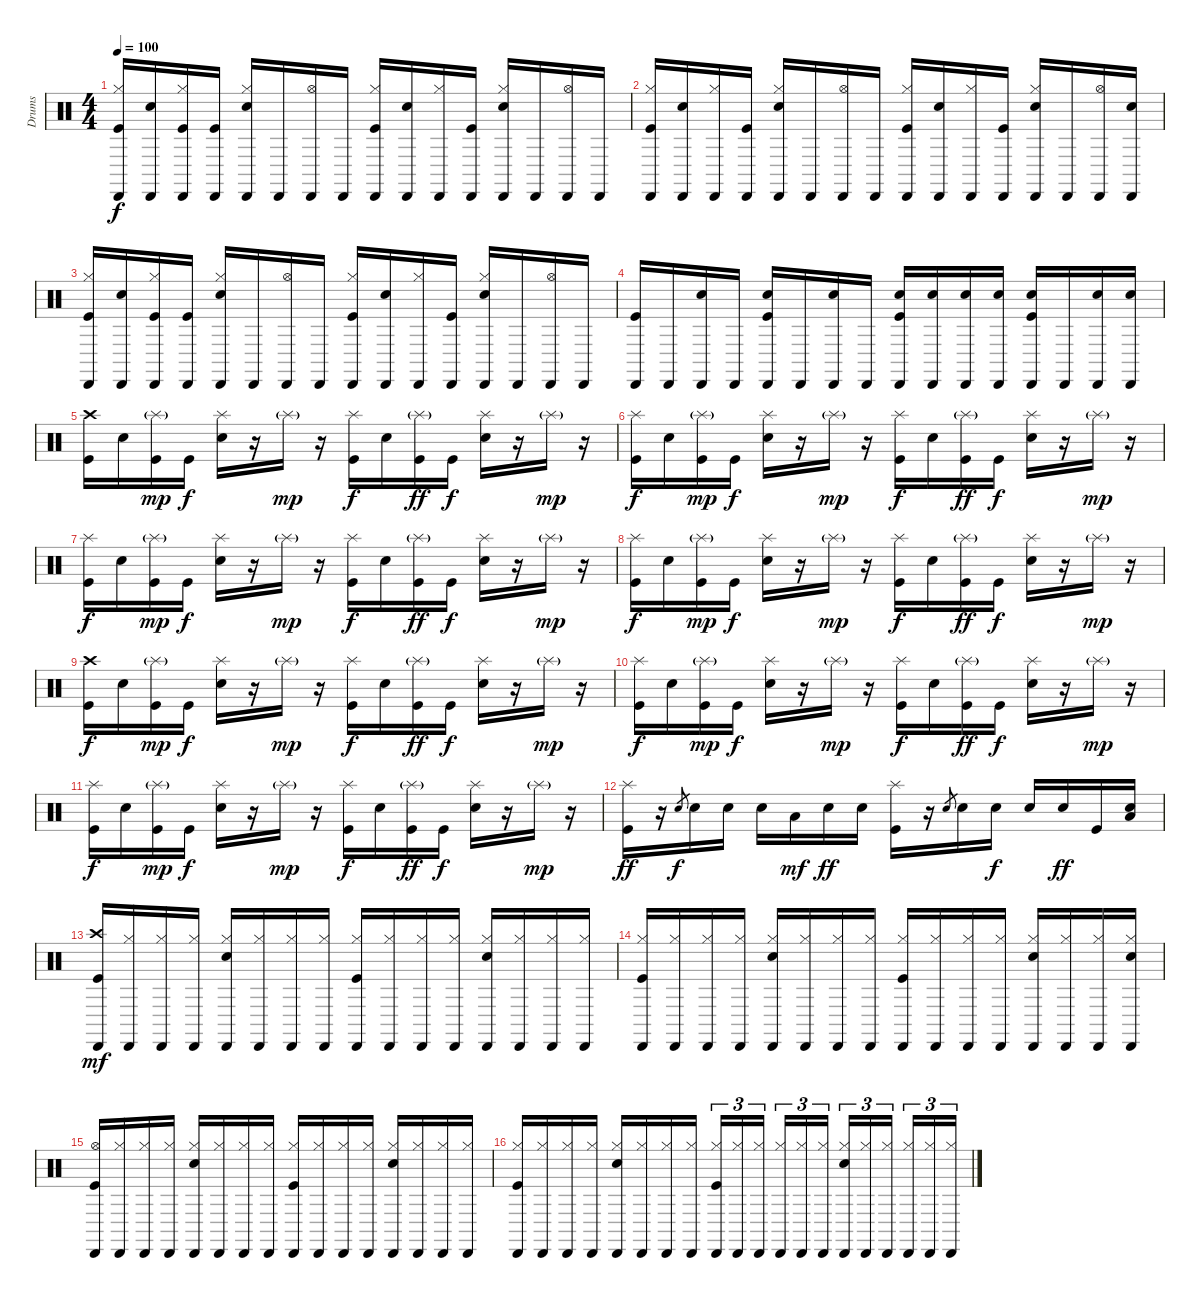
\track ("Drums" "Drums") {instrument percussion}
\staff {score}
\articulation defaults
\ts (4 4)
\tempo 100
\clef neutral
\ks c
("Hi-Hat (closed)" "Kick (hit)" "Cabasa (hit)").16{dy f} ("Snare (hit) 2" "Cabasa (hit)").16 ("Hi-Hat (closed)" "Kick (hit)" "Cabasa (hit)").16 ("Kick (hit)" "Cabasa (hit)").16 ("Hi-Hat (closed)" "Snare (hit) 2" "Cabasa (hit)").16 "Cabasa (hit)".16 ("Hi-Hat (open)" "Cabasa (hit)").16 "Cabasa (hit)".16 ("Hi-Hat (closed)" "Kick (hit)" "Cabasa (hit)").16 ("Snare (hit) 2" "Cabasa (hit)").16 ("Hi-Hat (closed)" "Cabasa (hit)").16 ("Kick (hit)" "Cabasa (hit)").16 ("Hi-Hat (closed)" "Snare (hit) 2" "Cabasa (hit)").16 "Cabasa (hit)".16 ("Hi-Hat (open)" "Cabasa (hit)").16 "Cabasa (hit)".16 |
("Hi-Hat (closed)" "Kick (hit)" "Cabasa (hit)").16 ("Snare (hit) 2" "Cabasa (hit)").16 ("Hi-Hat (closed)" "Cabasa (hit)").16 ("Kick (hit)" "Cabasa (hit)").16 ("Hi-Hat (closed)" "Snare (hit) 2" "Cabasa (hit)").16 "Cabasa (hit)".16 ("Hi-Hat (open)" "Cabasa (hit)").16 "Cabasa (hit)".16 ("Hi-Hat (closed)" "Kick (hit)" "Cabasa (hit)").16 ("Snare (hit) 2" "Cabasa (hit)").16 ("Hi-Hat (closed)" "Cabasa (hit)").16 ("Kick (hit)" "Cabasa (hit)").16 ("Hi-Hat (closed)" "Snare (hit) 2" "Cabasa (hit)").16 "Cabasa (hit)".16 ("Hi-Hat (open)" "Cabasa (hit)").16 ("Snare (hit) 2" "Cabasa (hit)").16 |
("Hi-Hat (closed)" "Kick (hit)" "Cabasa (hit)").16 ("Snare (hit) 2" "Cabasa (hit)").16 ("Hi-Hat (closed)" "Kick (hit)" "Cabasa (hit)").16 ("Kick (hit)" "Cabasa (hit)").16 ("Hi-Hat (closed)" "Snare (hit) 2" "Cabasa (hit)").16 "Cabasa (hit)".16 ("Hi-Hat (open)" "Cabasa (hit)").16 "Cabasa (hit)".16 ("Hi-Hat (closed)" "Kick (hit)" "Cabasa (hit)").16 ("Snare (hit) 2" "Cabasa (hit)").16 ("Hi-Hat (closed)" "Cabasa (hit)").16 ("Kick (hit)" "Cabasa (hit)").16 ("Hi-Hat (closed)" "Snare (hit) 2" "Cabasa (hit)").16 "Cabasa (hit)".16 ("Hi-Hat (open)" "Cabasa (hit)").16 "Cabasa (hit)".16 |
("Kick (hit)" "Cabasa (hit)").16 "Cabasa (hit)".16 ("Snare (hit) 2" "Cabasa (hit)").16 "Cabasa (hit)".16 ("Kick (hit)" "Snare (hit) 2" "Cabasa (hit)").16 "Cabasa (hit)".16 ("Snare (hit) 2" "Cabasa (hit)").16 "Cabasa (hit)".16 ("Kick (hit)" "Snare (hit) 2" "Cabasa (hit)").16 ("Snare (hit) 2" "Cabasa (hit)").16 ("Snare (hit) 2" "Cabasa (hit)").16 ("Snare (hit) 2" "Cabasa (hit)").16 ("Kick (hit)" "Snare (hit) 2" "Cabasa (hit)").16 "Cabasa (hit)".16 ("Snare (hit) 2" "Cabasa (hit)").16 ("Snare (hit) 2" "Cabasa (hit)").16 |
("Crash high (hit)" "Kick (hit)").16 "Snare (hit) 2".16 ("Splash (hit)"{g} "Kick (hit)").16{dy mp} "Kick (hit)".16{dy f} ("Splash (hit)" "Snare (hit) 2").16 r.16 "Splash (hit)"{g}.16{dy mp} r.16 ("Splash (hit)" "Kick (hit)").16{dy f} "Snare (hit) 2".16 ("Splash (hit)"{g} "Kick (hit)").16{dy ff} "Kick (hit)".16{dy f} ("Splash (hit)" "Snare (hit) 2").16 r.16 "Splash (hit)"{g}.16{dy mp} r.16 |
("Splash (hit)" "Kick (hit)").16{dy f} "Snare (hit) 2".16 ("Splash (hit)"{g} "Kick (hit)").16{dy mp} "Kick (hit)".16{dy f} ("Splash (hit)" "Snare (hit) 2").16 r.16 "Splash (hit)"{g}.16{dy mp} r.16 ("Splash (hit)" "Kick (hit)").16{dy f} "Snare (hit) 2".16 ("Splash (hit)"{g} "Kick (hit)").16{dy ff} "Kick (hit)".16{dy f} ("Splash (hit)" "Snare (hit) 2").16 r.16 "Splash (hit)"{g}.16{dy mp} r.16 |
("Splash (hit)" "Kick (hit)").16{dy f} "Snare (hit) 2".16 ("Splash (hit)"{g} "Kick (hit)").16{dy mp} "Kick (hit)".16{dy f} ("Splash (hit)" "Snare (hit) 2").16 r.16 "Splash (hit)"{g}.16{dy mp} r.16 ("Splash (hit)" "Kick (hit)").16{dy f} "Snare (hit) 2".16 ("Splash (hit)"{g} "Kick (hit)").16{dy ff} "Kick (hit)".16{dy f} ("Splash (hit)" "Snare (hit) 2").16 r.16 "Splash (hit)"{g}.16{dy mp} r.16 |
("Splash (hit)" "Kick (hit)").16{dy f} "Snare (hit) 2".16 ("Splash (hit)"{g} "Kick (hit)").16{dy mp} "Kick (hit)".16{dy f} ("Splash (hit)" "Snare (hit) 2").16 r.16 "Splash (hit)"{g}.16{dy mp} r.16 ("Splash (hit)" "Kick (hit)").16{dy f} "Snare (hit) 2".16 ("Splash (hit)"{g} "Kick (hit)").16{dy ff} "Kick (hit)".16{dy f} ("Splash (hit)" "Snare (hit) 2").16 r.16 "Splash (hit)"{g}.16{dy mp} r.16 |
("Crash high (hit)" "Kick (hit)").16{dy f} "Snare (hit) 2".16 ("Splash (hit)"{g} "Kick (hit)").16{dy mp} "Kick (hit)".16{dy f} ("Splash (hit)" "Snare (hit) 2").16 r.16 "Splash (hit)"{g}.16{dy mp} r.16 ("Splash (hit)" "Kick (hit)").16{dy f} "Snare (hit) 2".16 ("Splash (hit)"{g} "Kick (hit)").16{dy ff} "Kick (hit)".16{dy f} ("Splash (hit)" "Snare (hit) 2").16 r.16 "Splash (hit)"{g}.16{dy mp} r.16 |
("Splash (hit)" "Kick (hit)").16{dy f} "Snare (hit) 2".16 ("Splash (hit)"{g} "Kick (hit)").16{dy mp} "Kick (hit)".16{dy f} ("Splash (hit)" "Snare (hit) 2").16 r.16 "Splash (hit)"{g}.16{dy mp} r.16 ("Splash (hit)" "Kick (hit)").16{dy f} "Snare (hit) 2".16 ("Splash (hit)"{g} "Kick (hit)").16{dy ff} "Kick (hit)".16{dy f} ("Splash (hit)" "Snare (hit) 2").16 r.16 "Splash (hit)"{g}.16{dy mp} r.16 |
("Splash (hit)" "Kick (hit)").16{dy f} "Snare (hit) 2".16 ("Splash (hit)"{g} "Kick (hit)").16{dy mp} "Kick (hit)".16{dy f} ("Splash (hit)" "Snare (hit) 2").16 r.16 "Splash (hit)"{g}.16{dy mp} r.16 ("Splash (hit)" "Kick (hit)").16{dy f} "Snare (hit) 2".16 ("Splash (hit)"{g} "Kick (hit)").16{dy ff} "Kick (hit)".16{dy f} ("Splash (hit)" "Snare (hit) 2").16 r.16 "Splash (hit)"{g}.16{dy mp} r.16 |
("Splash (hit)" "Kick (hit)").16{dy ff} r.16 "Snare (hit) 2".8{gr dy f} "Snare (hit) 2".16 "Snare (hit) 2".16 "Snare (hit) 2".16 "Low Tom (hit)".16{dy mf} "Snare (hit) 2".16{dy ff} "Snare (hit) 2".16 ("Splash (hit)" "Kick (hit)").16 r.16 "Snare (hit) 2".8{gr} "Snare (hit) 2".16 "Snare (hit) 2".16{dy f} "Snare (hit) 2".16 "Snare (hit) 2".16{dy ff} "Kick (hit)".16 ("Low Floor Tom (hit)" "Snare (hit) 2").16 |
("Kick (hit)" "Crash high (hit)" "Cabasa (hit)").16{dy mf} ("Hi-Hat (closed)" "Cabasa (hit)").16 ("Hi-Hat (closed)" "Cabasa (hit)").16 ("Hi-Hat (closed)" "Cabasa (hit)").16 ("Snare (hit) 2" "Hi-Hat (closed)" "Cabasa (hit)").16 ("Hi-Hat (closed)" "Cabasa (hit)").16 ("Hi-Hat (closed)" "Cabasa (hit)").16 ("Hi-Hat (closed)" "Cabasa (hit)").16 ("Kick (hit)" "Hi-Hat (closed)" "Cabasa (hit)").16 ("Hi-Hat (closed)" "Cabasa (hit)").16 ("Hi-Hat (closed)" "Cabasa (hit)").16 ("Hi-Hat (closed)" "Cabasa (hit)").16 ("Snare (hit) 2" "Hi-Hat (closed)" "Cabasa (hit)").16 ("Hi-Hat (closed)" "Cabasa (hit)").16 ("Hi-Hat (closed)" "Cabasa (hit)").16 ("Hi-Hat (closed)" "Cabasa (hit)").16 |
("Kick (hit)" "Hi-Hat (closed)" "Cabasa (hit)").16 ("Hi-Hat (closed)" "Cabasa (hit)").16 ("Hi-Hat (closed)" "Cabasa (hit)").16 ("Hi-Hat (closed)" "Cabasa (hit)").16 ("Snare (hit) 2" "Hi-Hat (closed)" "Cabasa (hit)").16 ("Hi-Hat (closed)" "Cabasa (hit)").16 ("Hi-Hat (closed)" "Cabasa (hit)").16 ("Hi-Hat (closed)" "Cabasa (hit)").16 ("Kick (hit)" "Hi-Hat (closed)" "Cabasa (hit)").16 ("Hi-Hat (closed)" "Cabasa (hit)").16 ("Hi-Hat (closed)" "Cabasa (hit)").16 ("Hi-Hat (closed)" "Cabasa (hit)").16 ("Snare (hit) 2" "Hi-Hat (closed)" "Cabasa (hit)").16 ("Hi-Hat (closed)" "Cabasa (hit)").16 ("Hi-Hat (closed)" "Cabasa (hit)").16 ("Snare (hit) 2" "Hi-Hat (closed)" "Cabasa (hit)").16 |
("Kick (hit)" "Hi-Hat (open)" "Cabasa (hit)").16 ("Hi-Hat (closed)" "Cabasa (hit)").16 ("Hi-Hat (closed)" "Cabasa (hit)").16 ("Hi-Hat (closed)" "Cabasa (hit)").16 ("Snare (hit) 2" "Hi-Hat (closed)" "Cabasa (hit)").16 ("Hi-Hat (closed)" "Cabasa (hit)").16 ("Hi-Hat (closed)" "Cabasa (hit)").16 ("Hi-Hat (closed)" "Cabasa (hit)").16 ("Kick (hit)" "Hi-Hat (closed)" "Cabasa (hit)").16 ("Hi-Hat (closed)" "Cabasa (hit)").16 ("Hi-Hat (closed)" "Cabasa (hit)").16 ("Hi-Hat (closed)" "Cabasa (hit)").16 ("Snare (hit) 2" "Hi-Hat (closed)" "Cabasa (hit)").16 ("Hi-Hat (closed)" "Cabasa (hit)").16 ("Hi-Hat (closed)" "Cabasa (hit)").16 ("Hi-Hat (closed)" "Cabasa (hit)").16 |
("Kick (hit)" "Hi-Hat (closed)" "Cabasa (hit)").16 ("Hi-Hat (closed)" "Cabasa (hit)").16 ("Hi-Hat (closed)" "Cabasa (hit)").16 ("Hi-Hat (closed)" "Cabasa (hit)").16 ("Snare (hit) 2" "Hi-Hat (closed)" "Cabasa (hit)").16 ("Hi-Hat (closed)" "Cabasa (hit)").16 ("Hi-Hat (closed)" "Cabasa (hit)").16 ("Hi-Hat (closed)" "Cabasa (hit)").16 ("Kick (hit)" "Hi-Hat (closed)" "Cabasa (hit)").16{tu (3 2)} ("Hi-Hat (closed)" "Cabasa (hit)").16{tu (3 2)} ("Hi-Hat (closed)" "Cabasa (hit)").16{tu (3 2) beam splitsecondary} ("Hi-Hat (closed)" "Cabasa (hit)").16{tu (3 2)} ("Hi-Hat (closed)" "Cabasa (hit)").16{tu (3 2)} ("Hi-Hat (closed)" "Cabasa (hit)").16{tu (3 2)} ("Snare (hit) 2" "Hi-Hat (closed)" "Cabasa (hit)").16{tu (3 2)} ("Hi-Hat (closed)" "Cabasa (hit)").16{tu (3 2)} ("Hi-Hat (closed)" "Cabasa (hit)").16{tu (3 2) beam splitsecondary} ("Hi-Hat (closed)" "Cabasa (hit)").16{tu (3 2)} ("Hi-Hat (closed)" "Cabasa (hit)").16{tu (3 2)} ("Hi-Hat (closed)" "Cabasa (hit)").16{tu (3 2)}
